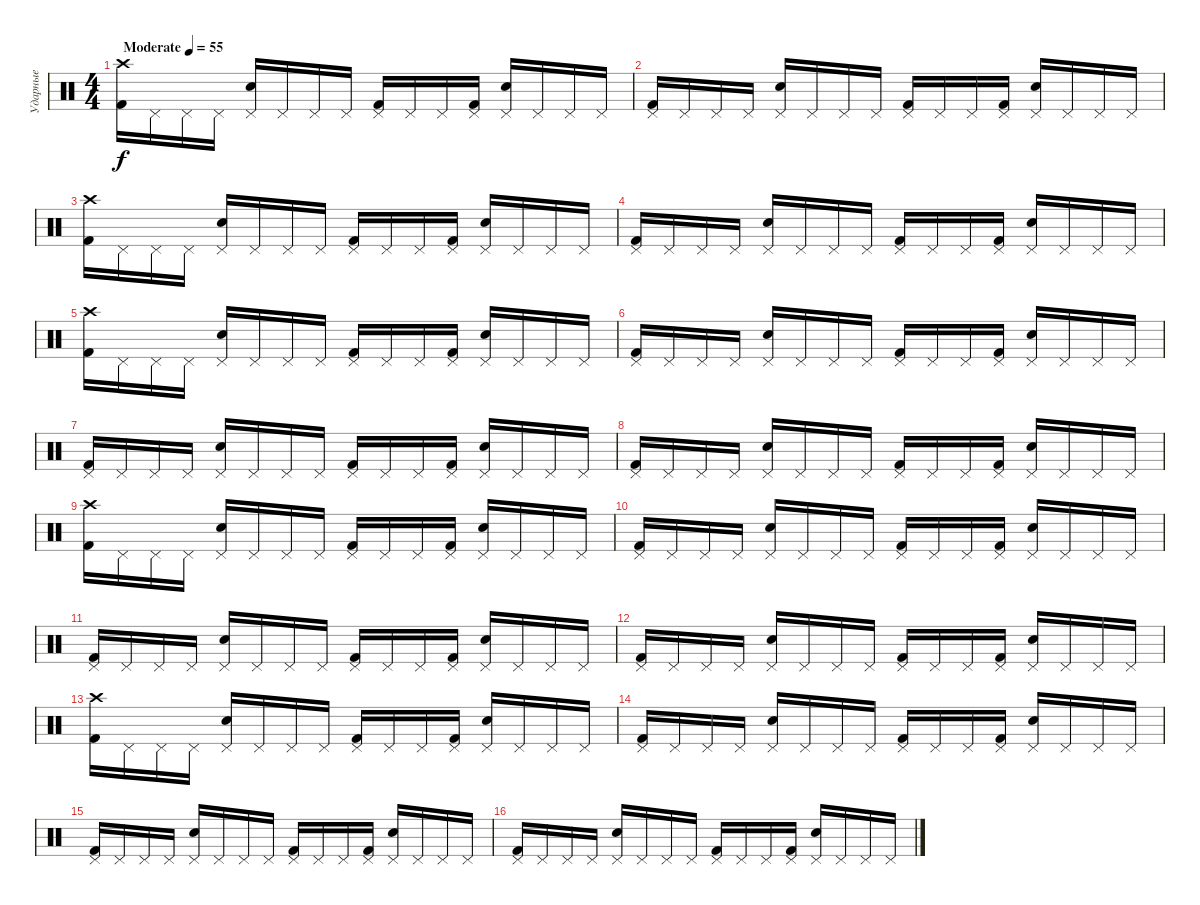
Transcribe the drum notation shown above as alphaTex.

\track ("Ударные" "Ударные") {instrument percussion}
\staff {score}
\articulation defaults
\ts (4 4)
\tempo (55 "Moderate")
\clef neutral
\ks c
("Crash high (hit)" "Kick (hit) 2").16{dy f} "Pedal Hi-Hat (hit)".16 "Pedal Hi-Hat (hit)".16 "Pedal Hi-Hat (hit)".16 ("Pedal Hi-Hat (hit)" "Electric Snare (hit)").16 "Pedal Hi-Hat (hit)".16 "Pedal Hi-Hat (hit)".16 "Pedal Hi-Hat (hit)".16 ("Pedal Hi-Hat (hit)" "Kick (hit) 2").16 "Pedal Hi-Hat (hit)".16 "Pedal Hi-Hat (hit)".16 ("Pedal Hi-Hat (hit)" "Kick (hit) 2").16 ("Pedal Hi-Hat (hit)" "Electric Snare (hit)").16 "Pedal Hi-Hat (hit)".16 "Pedal Hi-Hat (hit)".16 "Pedal Hi-Hat (hit)".16 |
("Pedal Hi-Hat (hit)" "Kick (hit) 2").16 "Pedal Hi-Hat (hit)".16 "Pedal Hi-Hat (hit)".16 "Pedal Hi-Hat (hit)".16 ("Pedal Hi-Hat (hit)" "Electric Snare (hit)").16 "Pedal Hi-Hat (hit)".16 "Pedal Hi-Hat (hit)".16 "Pedal Hi-Hat (hit)".16 ("Pedal Hi-Hat (hit)" "Kick (hit) 2").16 "Pedal Hi-Hat (hit)".16 "Pedal Hi-Hat (hit)".16 ("Pedal Hi-Hat (hit)" "Kick (hit) 2").16 ("Pedal Hi-Hat (hit)" "Electric Snare (hit)").16 "Pedal Hi-Hat (hit)".16 "Pedal Hi-Hat (hit)".16 "Pedal Hi-Hat (hit)".16 |
("Crash high (hit)" "Kick (hit) 2").16 "Pedal Hi-Hat (hit)".16 "Pedal Hi-Hat (hit)".16 "Pedal Hi-Hat (hit)".16 ("Pedal Hi-Hat (hit)" "Electric Snare (hit)").16 "Pedal Hi-Hat (hit)".16 "Pedal Hi-Hat (hit)".16 "Pedal Hi-Hat (hit)".16 ("Pedal Hi-Hat (hit)" "Kick (hit) 2").16 "Pedal Hi-Hat (hit)".16 "Pedal Hi-Hat (hit)".16 ("Pedal Hi-Hat (hit)" "Kick (hit) 2").16 ("Pedal Hi-Hat (hit)" "Electric Snare (hit)").16 "Pedal Hi-Hat (hit)".16 "Pedal Hi-Hat (hit)".16 "Pedal Hi-Hat (hit)".16 |
("Pedal Hi-Hat (hit)" "Kick (hit) 2").16 "Pedal Hi-Hat (hit)".16 "Pedal Hi-Hat (hit)".16 "Pedal Hi-Hat (hit)".16 ("Pedal Hi-Hat (hit)" "Electric Snare (hit)").16 "Pedal Hi-Hat (hit)".16 "Pedal Hi-Hat (hit)".16 "Pedal Hi-Hat (hit)".16 ("Pedal Hi-Hat (hit)" "Kick (hit) 2").16 "Pedal Hi-Hat (hit)".16 "Pedal Hi-Hat (hit)".16 ("Pedal Hi-Hat (hit)" "Kick (hit) 2").16 ("Pedal Hi-Hat (hit)" "Electric Snare (hit)").16 "Pedal Hi-Hat (hit)".16 "Pedal Hi-Hat (hit)".16 "Pedal Hi-Hat (hit)".16 |
("Crash high (hit)" "Kick (hit) 2").16 "Pedal Hi-Hat (hit)".16 "Pedal Hi-Hat (hit)".16 "Pedal Hi-Hat (hit)".16 ("Pedal Hi-Hat (hit)" "Electric Snare (hit)").16 "Pedal Hi-Hat (hit)".16 "Pedal Hi-Hat (hit)".16 "Pedal Hi-Hat (hit)".16 ("Pedal Hi-Hat (hit)" "Kick (hit) 2").16 "Pedal Hi-Hat (hit)".16 "Pedal Hi-Hat (hit)".16 ("Pedal Hi-Hat (hit)" "Kick (hit) 2").16 ("Pedal Hi-Hat (hit)" "Electric Snare (hit)").16 "Pedal Hi-Hat (hit)".16 "Pedal Hi-Hat (hit)".16 "Pedal Hi-Hat (hit)".16 |
("Pedal Hi-Hat (hit)" "Kick (hit) 2").16 "Pedal Hi-Hat (hit)".16 "Pedal Hi-Hat (hit)".16 "Pedal Hi-Hat (hit)".16 ("Pedal Hi-Hat (hit)" "Electric Snare (hit)").16 "Pedal Hi-Hat (hit)".16 "Pedal Hi-Hat (hit)".16 "Pedal Hi-Hat (hit)".16 ("Pedal Hi-Hat (hit)" "Kick (hit) 2").16 "Pedal Hi-Hat (hit)".16 "Pedal Hi-Hat (hit)".16 ("Pedal Hi-Hat (hit)" "Kick (hit) 2").16 ("Pedal Hi-Hat (hit)" "Electric Snare (hit)").16 "Pedal Hi-Hat (hit)".16 "Pedal Hi-Hat (hit)".16 "Pedal Hi-Hat (hit)".16 |
("Pedal Hi-Hat (hit)" "Kick (hit) 2").16 "Pedal Hi-Hat (hit)".16 "Pedal Hi-Hat (hit)".16 "Pedal Hi-Hat (hit)".16 ("Pedal Hi-Hat (hit)" "Electric Snare (hit)").16 "Pedal Hi-Hat (hit)".16 "Pedal Hi-Hat (hit)".16 "Pedal Hi-Hat (hit)".16 ("Pedal Hi-Hat (hit)" "Kick (hit) 2").16 "Pedal Hi-Hat (hit)".16 "Pedal Hi-Hat (hit)".16 ("Pedal Hi-Hat (hit)" "Kick (hit) 2").16 ("Pedal Hi-Hat (hit)" "Electric Snare (hit)").16 "Pedal Hi-Hat (hit)".16 "Pedal Hi-Hat (hit)".16 "Pedal Hi-Hat (hit)".16 |
("Pedal Hi-Hat (hit)" "Kick (hit) 2").16 "Pedal Hi-Hat (hit)".16 "Pedal Hi-Hat (hit)".16 "Pedal Hi-Hat (hit)".16 ("Pedal Hi-Hat (hit)" "Electric Snare (hit)").16 "Pedal Hi-Hat (hit)".16 "Pedal Hi-Hat (hit)".16 "Pedal Hi-Hat (hit)".16 ("Pedal Hi-Hat (hit)" "Kick (hit) 2").16 "Pedal Hi-Hat (hit)".16 "Pedal Hi-Hat (hit)".16 ("Pedal Hi-Hat (hit)" "Kick (hit) 2").16 ("Pedal Hi-Hat (hit)" "Electric Snare (hit)").16 "Pedal Hi-Hat (hit)".16 "Pedal Hi-Hat (hit)".16 "Pedal Hi-Hat (hit)".16 |
("Crash high (hit)" "Kick (hit) 2").16 "Pedal Hi-Hat (hit)".16 "Pedal Hi-Hat (hit)".16 "Pedal Hi-Hat (hit)".16 ("Pedal Hi-Hat (hit)" "Electric Snare (hit)").16 "Pedal Hi-Hat (hit)".16 "Pedal Hi-Hat (hit)".16 "Pedal Hi-Hat (hit)".16 ("Pedal Hi-Hat (hit)" "Kick (hit) 2").16 "Pedal Hi-Hat (hit)".16 "Pedal Hi-Hat (hit)".16 ("Pedal Hi-Hat (hit)" "Kick (hit) 2").16 ("Pedal Hi-Hat (hit)" "Electric Snare (hit)").16 "Pedal Hi-Hat (hit)".16 "Pedal Hi-Hat (hit)".16 "Pedal Hi-Hat (hit)".16 |
("Pedal Hi-Hat (hit)" "Kick (hit) 2").16 "Pedal Hi-Hat (hit)".16 "Pedal Hi-Hat (hit)".16 "Pedal Hi-Hat (hit)".16 ("Pedal Hi-Hat (hit)" "Electric Snare (hit)").16 "Pedal Hi-Hat (hit)".16 "Pedal Hi-Hat (hit)".16 "Pedal Hi-Hat (hit)".16 ("Pedal Hi-Hat (hit)" "Kick (hit) 2").16 "Pedal Hi-Hat (hit)".16 "Pedal Hi-Hat (hit)".16 ("Pedal Hi-Hat (hit)" "Kick (hit) 2").16 ("Pedal Hi-Hat (hit)" "Electric Snare (hit)").16 "Pedal Hi-Hat (hit)".16 "Pedal Hi-Hat (hit)".16 "Pedal Hi-Hat (hit)".16 |
("Pedal Hi-Hat (hit)" "Kick (hit) 2").16 "Pedal Hi-Hat (hit)".16 "Pedal Hi-Hat (hit)".16 "Pedal Hi-Hat (hit)".16 ("Pedal Hi-Hat (hit)" "Electric Snare (hit)").16 "Pedal Hi-Hat (hit)".16 "Pedal Hi-Hat (hit)".16 "Pedal Hi-Hat (hit)".16 ("Pedal Hi-Hat (hit)" "Kick (hit) 2").16 "Pedal Hi-Hat (hit)".16 "Pedal Hi-Hat (hit)".16 ("Pedal Hi-Hat (hit)" "Kick (hit) 2").16 ("Pedal Hi-Hat (hit)" "Electric Snare (hit)").16 "Pedal Hi-Hat (hit)".16 "Pedal Hi-Hat (hit)".16 "Pedal Hi-Hat (hit)".16 |
("Pedal Hi-Hat (hit)" "Kick (hit) 2").16 "Pedal Hi-Hat (hit)".16 "Pedal Hi-Hat (hit)".16 "Pedal Hi-Hat (hit)".16 ("Pedal Hi-Hat (hit)" "Electric Snare (hit)").16 "Pedal Hi-Hat (hit)".16 "Pedal Hi-Hat (hit)".16 "Pedal Hi-Hat (hit)".16 ("Pedal Hi-Hat (hit)" "Kick (hit) 2").16 "Pedal Hi-Hat (hit)".16 "Pedal Hi-Hat (hit)".16 ("Pedal Hi-Hat (hit)" "Kick (hit) 2").16 ("Pedal Hi-Hat (hit)" "Electric Snare (hit)").16 "Pedal Hi-Hat (hit)".16 "Pedal Hi-Hat (hit)".16 "Pedal Hi-Hat (hit)".16 |
("Crash high (hit)" "Kick (hit) 2").16 "Pedal Hi-Hat (hit)".16 "Pedal Hi-Hat (hit)".16 "Pedal Hi-Hat (hit)".16 ("Pedal Hi-Hat (hit)" "Electric Snare (hit)").16 "Pedal Hi-Hat (hit)".16 "Pedal Hi-Hat (hit)".16 "Pedal Hi-Hat (hit)".16 ("Pedal Hi-Hat (hit)" "Kick (hit) 2").16 "Pedal Hi-Hat (hit)".16 "Pedal Hi-Hat (hit)".16 ("Pedal Hi-Hat (hit)" "Kick (hit) 2").16 ("Pedal Hi-Hat (hit)" "Electric Snare (hit)").16 "Pedal Hi-Hat (hit)".16 "Pedal Hi-Hat (hit)".16 "Pedal Hi-Hat (hit)".16 |
("Pedal Hi-Hat (hit)" "Kick (hit) 2").16 "Pedal Hi-Hat (hit)".16 "Pedal Hi-Hat (hit)".16 "Pedal Hi-Hat (hit)".16 ("Pedal Hi-Hat (hit)" "Electric Snare (hit)").16 "Pedal Hi-Hat (hit)".16 "Pedal Hi-Hat (hit)".16 "Pedal Hi-Hat (hit)".16 ("Pedal Hi-Hat (hit)" "Kick (hit) 2").16 "Pedal Hi-Hat (hit)".16 "Pedal Hi-Hat (hit)".16 ("Pedal Hi-Hat (hit)" "Kick (hit) 2").16 ("Pedal Hi-Hat (hit)" "Electric Snare (hit)").16 "Pedal Hi-Hat (hit)".16 "Pedal Hi-Hat (hit)".16 "Pedal Hi-Hat (hit)".16 |
("Pedal Hi-Hat (hit)" "Kick (hit) 2").16 "Pedal Hi-Hat (hit)".16 "Pedal Hi-Hat (hit)".16 "Pedal Hi-Hat (hit)".16 ("Pedal Hi-Hat (hit)" "Electric Snare (hit)").16 "Pedal Hi-Hat (hit)".16 "Pedal Hi-Hat (hit)".16 "Pedal Hi-Hat (hit)".16 ("Pedal Hi-Hat (hit)" "Kick (hit) 2").16 "Pedal Hi-Hat (hit)".16 "Pedal Hi-Hat (hit)".16 ("Pedal Hi-Hat (hit)" "Kick (hit) 2").16 ("Pedal Hi-Hat (hit)" "Electric Snare (hit)").16 "Pedal Hi-Hat (hit)".16 "Pedal Hi-Hat (hit)".16 "Pedal Hi-Hat (hit)".16 |
("Pedal Hi-Hat (hit)" "Kick (hit) 2").16 "Pedal Hi-Hat (hit)".16 "Pedal Hi-Hat (hit)".16 "Pedal Hi-Hat (hit)".16 ("Pedal Hi-Hat (hit)" "Electric Snare (hit)").16 "Pedal Hi-Hat (hit)".16 "Pedal Hi-Hat (hit)".16 "Pedal Hi-Hat (hit)".16 ("Pedal Hi-Hat (hit)" "Kick (hit) 2").16 "Pedal Hi-Hat (hit)".16 "Pedal Hi-Hat (hit)".16 ("Pedal Hi-Hat (hit)" "Kick (hit) 2").16 ("Pedal Hi-Hat (hit)" "Electric Snare (hit)").16 "Pedal Hi-Hat (hit)".16 "Pedal Hi-Hat (hit)".16 "Pedal Hi-Hat (hit)".16
